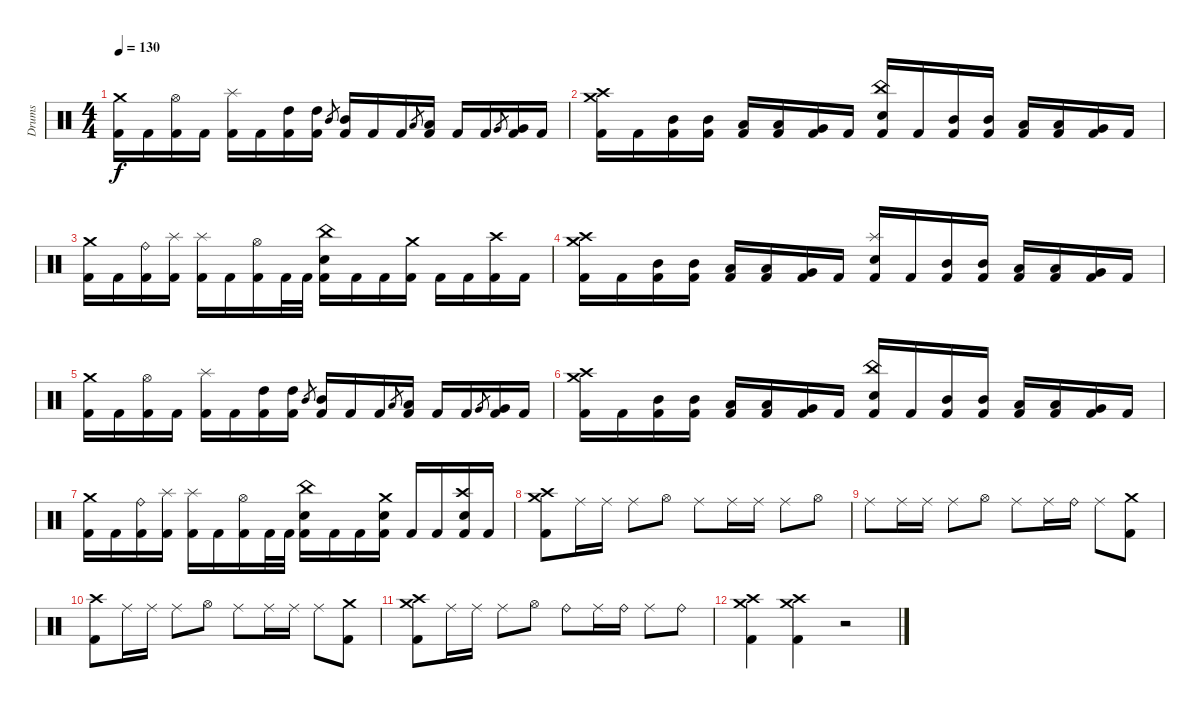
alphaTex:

\track ("Drums" "Drums") {instrument percussion}
\staff {score}
\articulation defaults
\ts (4 4)
\tempo 130
\clef neutral
\ks c
("Crash medium (hit)" "Kick (hit) 2").16{dy f} "Kick (hit) 2".16 ("Hi-Hat (open)" "Kick (hit) 2").16 "Kick (hit) 2".16 ("Splash (hit)" "Kick (hit) 2").16 "Kick (hit) 2".16 ("High Tom (hit)" "Kick (hit) 2").16 ("High Tom (hit)" "Kick (hit) 2").16 "Mid Tom (hit)".8{gr} ("Mid Tom (hit)" "Kick (hit) 2").16 "Kick (hit) 2".16 "Kick (hit) 2".16 "Low Tom (hit)".8{gr} ("Low Tom (hit)" "Kick (hit) 2").16 "Kick (hit) 2".16 "Kick (hit) 2".16 "Very Low Tom (hit)".8{gr} ("Very Low Tom (hit)" "Kick (hit) 2").16 "Kick (hit) 2".16 |
("Crash high (hit)" "Crash medium (hit)" "Kick (hit) 2").16 "Kick (hit) 2".16 ("Mid Tom (hit)" "Kick (hit) 2").16 ("Mid Tom (hit)" "Kick (hit) 2").16 ("Low Tom (hit)" "Kick (hit) 2").16 ("Low Tom (hit)" "Kick (hit) 2").16 ("Very Low Tom (hit)" "Kick (hit) 2").16 "Kick (hit) 2".16 ("China (hit)" "Electric Snare (hit)" "Kick (hit) 2").16 "Kick (hit) 2".16 ("Mid Tom (hit)" "Kick (hit) 2").16 ("Mid Tom (hit)" "Kick (hit) 2").16 ("Low Tom (hit)" "Kick (hit) 2").16 ("Low Tom (hit)" "Kick (hit) 2").16 ("Very Low Tom (hit)" "Kick (hit) 2").16 "Kick (hit) 2".16 |
("Crash medium (hit)" "Kick (hit) 2").16 "Kick (hit) 2".16 ("Ride (bell)" "Kick (hit) 2").16 ("Splash (hit)" "Kick (hit) 2").16 ("Splash (hit)" "Kick (hit) 2").16 "Kick (hit) 2".16 ("Hi-Hat (open)" "Kick (hit) 2").16 "Kick (hit) 2".32 "Kick (hit) 2".32 ("China (hit)" "Electric Snare (hit)" "Kick (hit) 2").16 "Kick (hit) 2".16 "Kick (hit) 2".16 ("Crash medium (hit)" "Kick (hit) 2").16 "Kick (hit) 2".16 "Kick (hit) 2".16 ("Crash high (hit)" "Kick (hit) 2").16 "Kick (hit) 2".16 |
("Crash high (hit)" "Crash medium (hit)" "Kick (hit) 2").16 "Kick (hit) 2".16 ("Mid Tom (hit)" "Kick (hit) 2").16 ("Mid Tom (hit)" "Kick (hit) 2").16 ("Low Tom (hit)" "Kick (hit) 2").16 ("Low Tom (hit)" "Kick (hit) 2").16 ("Very Low Tom (hit)" "Kick (hit) 2").16 "Kick (hit) 2".16 ("Splash (hit)" "Electric Snare (hit)" "Kick (hit) 2").16 "Kick (hit) 2".16 ("Mid Tom (hit)" "Kick (hit) 2").16 ("Mid Tom (hit)" "Kick (hit) 2").16 ("Low Tom (hit)" "Kick (hit) 2").16 ("Low Tom (hit)" "Kick (hit) 2").16 ("Very Low Tom (hit)" "Kick (hit) 2").16 "Kick (hit) 2".16 |
("Crash medium (hit)" "Kick (hit) 2").16 "Kick (hit) 2".16 ("Hi-Hat (open)" "Kick (hit) 2").16 "Kick (hit) 2".16 ("Splash (hit)" "Kick (hit) 2").16 "Kick (hit) 2".16 ("High Tom (hit)" "Kick (hit) 2").16 ("High Tom (hit)" "Kick (hit) 2").16 "Mid Tom (hit)".8{gr} ("Mid Tom (hit)" "Kick (hit) 2").16 "Kick (hit) 2".16 "Kick (hit) 2".16 "Low Tom (hit)".8{gr} ("Low Tom (hit)" "Kick (hit) 2").16 "Kick (hit) 2".16 "Kick (hit) 2".16 "Very Low Tom (hit)".8{gr} ("Very Low Tom (hit)" "Kick (hit) 2").16 "Kick (hit) 2".16 |
("Crash high (hit)" "Crash medium (hit)" "Kick (hit) 2").16 "Kick (hit) 2".16 ("Mid Tom (hit)" "Kick (hit) 2").16 ("Mid Tom (hit)" "Kick (hit) 2").16 ("Low Tom (hit)" "Kick (hit) 2").16 ("Low Tom (hit)" "Kick (hit) 2").16 ("Very Low Tom (hit)" "Kick (hit) 2").16 "Kick (hit) 2".16 ("China (hit)" "Electric Snare (hit)" "Kick (hit) 2").16 "Kick (hit) 2".16 ("Mid Tom (hit)" "Kick (hit) 2").16 ("Mid Tom (hit)" "Kick (hit) 2").16 ("Low Tom (hit)" "Kick (hit) 2").16 ("Low Tom (hit)" "Kick (hit) 2").16 ("Very Low Tom (hit)" "Kick (hit) 2").16 "Kick (hit) 2".16 |
("Crash medium (hit)" "Kick (hit) 2").16 "Kick (hit) 2".16 ("Ride (bell)" "Kick (hit) 2").16 ("Splash (hit)" "Kick (hit) 2").16 ("Splash (hit)" "Kick (hit) 2").16 "Kick (hit) 2".16 ("Hi-Hat (open)" "Kick (hit) 2").16 "Kick (hit) 2".32 "Kick (hit) 2".32 ("China (hit)" "Electric Snare (hit)" "Kick (hit) 2").16 "Kick (hit) 2".16 "Kick (hit) 2".16 ("Crash medium (hit)" "Electric Snare (hit)" "Kick (hit) 2").16 "Kick (hit) 2".16 "Kick (hit) 2".16 ("Crash high (hit)" "Electric Snare (hit)" "Kick (hit) 2").16 "Kick (hit) 2".16 |
("Crash high (hit)" "Crash medium (hit)" "Kick (hit) 2").8 "Ride (middle)".16 "Ride (middle)".16 "Ride (middle)".8 "Hi-Hat (open)".8 "Ride (middle)".8 "Ride (middle)".16 "Ride (middle)".16 "Ride (middle)".8 "Hi-Hat (open)".8 |
"Ride (middle)".8 "Ride (middle)".16 "Ride (middle)".16 "Ride (middle)".8 "Hi-Hat (open)".8 "Ride (middle)".8 "Ride (middle)".16 "Ride (bell)".16 "Ride (middle)".8 ("Crash medium (hit)" "Kick (hit) 2").8 |
("Crash high (hit)" "Kick (hit) 2").8 "Ride (middle)".16 "Ride (middle)".16 "Ride (middle)".8 "Hi-Hat (open)".8 "Ride (middle)".8 "Ride (middle)".16 "Ride (middle)".16 "Ride (middle)".8 ("Crash medium (hit)" "Kick (hit) 2").8 |
("Crash medium (hit)" "Crash high (hit)" "Kick (hit) 2").8 "Ride (middle)".16 "Ride (middle)".16 "Ride (middle)".8 "Hi-Hat (open)".8 "Ride (bell)".8 "Ride (middle)".16 "Ride (bell)".16 "Ride (middle)".8 "Ride (bell)".8 |
("Crash high (hit)" "Crash medium (hit)" "Kick (hit) 2").4 ("Crash high (hit)" "Crash medium (hit)" "Kick (hit) 2").4 r.2
